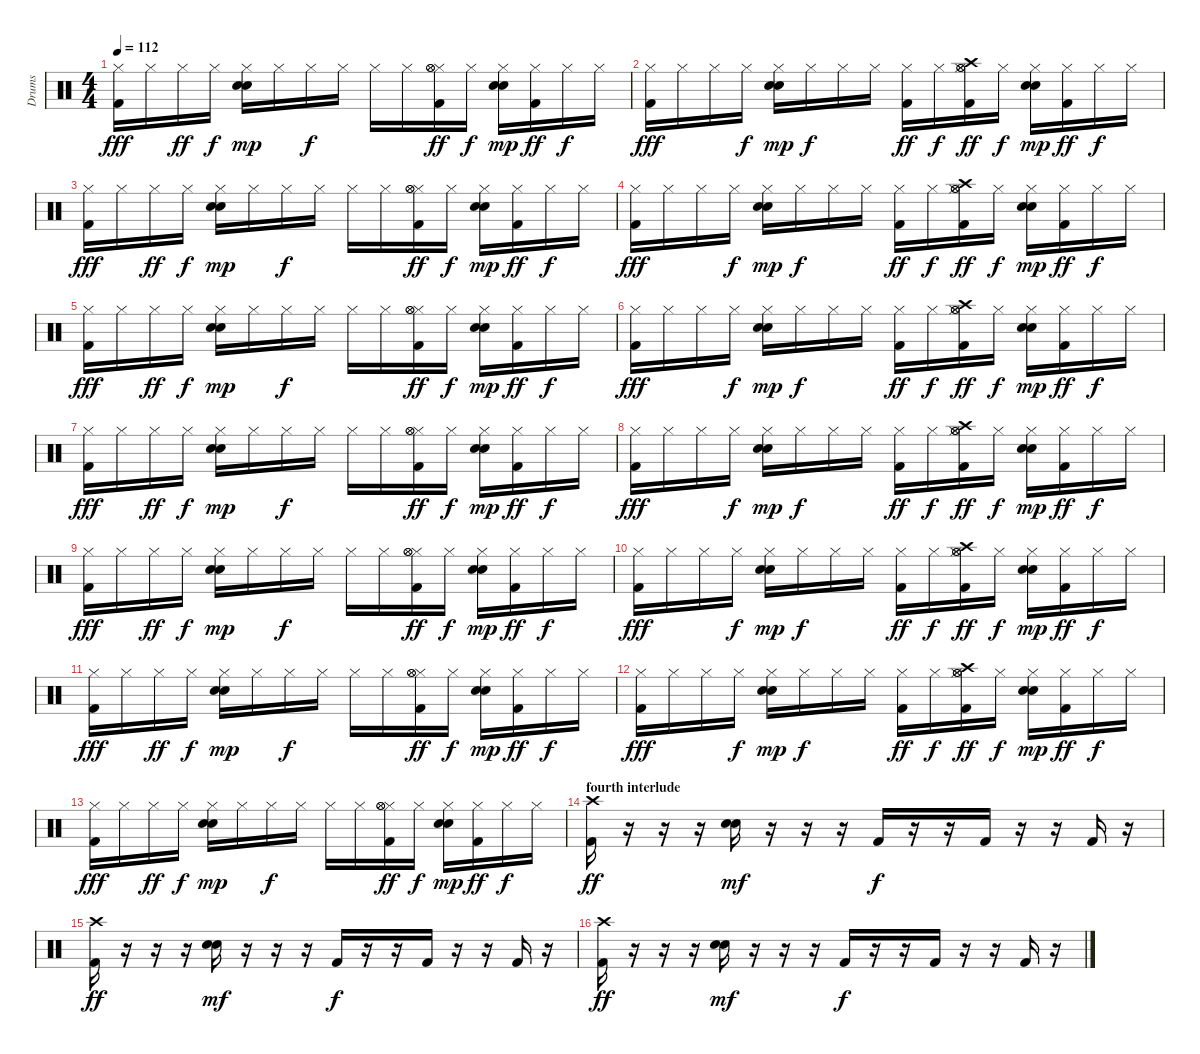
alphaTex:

\track ("Drums" "Drums") {instrument percussion}
\staff {score}
\articulation defaults
\ts (4 4)
\tempo 112
\clef neutral
\ks c
("Kick (hit) 2" "Hi-Hat (closed)").16{dy fff} "Hi-Hat (closed)".16 "Hi-Hat (closed)".16{dy ff} "Hi-Hat (closed)".16{dy f} ("Snare (hit) 2" "Hi-Hat (closed)" "Hand Clap (hit)").16{dy mp} "Hi-Hat (closed)".16 "Hi-Hat (closed)".16{dy f} "Hi-Hat (closed)".16 "Hi-Hat (closed)".16 "Hi-Hat (closed)".16 ("Kick (hit) 2" "Hi-Hat (closed)" "Hi-Hat (open)" "Hi-Hat (open)").16{dy ff} "Hi-Hat (closed)".16{dy f} ("Snare (hit) 2" "Hi-Hat (closed)" "Hand Clap (hit)").16{dy mp} ("Kick (hit) 2" "Hi-Hat (closed)").16{dy ff} "Hi-Hat (closed)".16{dy f} "Hi-Hat (closed)".16 |
("Kick (hit) 2" "Hi-Hat (closed)").16{dy fff} "Hi-Hat (closed)".16 "Hi-Hat (closed)".16 "Hi-Hat (closed)".16{dy f} ("Snare (hit) 2" "Hi-Hat (closed)" "Hand Clap (hit)").16{dy mp} "Hi-Hat (closed)".16{dy f} "Hi-Hat (closed)".16 "Hi-Hat (closed)".16 ("Kick (hit) 2" "Hi-Hat (closed)").16{dy ff} "Hi-Hat (closed)".16{dy f} ("Kick (hit) 2" "Crash high (hit)" "Hi-Hat (closed)" "Hi-Hat (open)" "Hi-Hat (open)").16{dy ff} "Hi-Hat (closed)".16{dy f} ("Snare (hit) 2" "Hi-Hat (closed)" "Hand Clap (hit)").16{dy mp} ("Kick (hit) 2" "Hi-Hat (closed)").16{dy ff} "Hi-Hat (closed)".16{dy f} "Hi-Hat (closed)".16 |
("Kick (hit) 2" "Hi-Hat (closed)").16{dy fff} "Hi-Hat (closed)".16 "Hi-Hat (closed)".16{dy ff} "Hi-Hat (closed)".16{dy f} ("Snare (hit) 2" "Hi-Hat (closed)" "Hand Clap (hit)").16{dy mp} "Hi-Hat (closed)".16 "Hi-Hat (closed)".16{dy f} "Hi-Hat (closed)".16 "Hi-Hat (closed)".16 "Hi-Hat (closed)".16 ("Kick (hit) 2" "Hi-Hat (closed)" "Hi-Hat (open)" "Hi-Hat (open)").16{dy ff} "Hi-Hat (closed)".16{dy f} ("Snare (hit) 2" "Hi-Hat (closed)" "Hand Clap (hit)").16{dy mp} ("Kick (hit) 2" "Hi-Hat (closed)").16{dy ff} "Hi-Hat (closed)".16{dy f} "Hi-Hat (closed)".16 |
("Kick (hit) 2" "Hi-Hat (closed)").16{dy fff} "Hi-Hat (closed)".16 "Hi-Hat (closed)".16 "Hi-Hat (closed)".16{dy f} ("Snare (hit) 2" "Hi-Hat (closed)" "Hand Clap (hit)").16{dy mp} "Hi-Hat (closed)".16{dy f} "Hi-Hat (closed)".16 "Hi-Hat (closed)".16 ("Kick (hit) 2" "Hi-Hat (closed)").16{dy ff} "Hi-Hat (closed)".16{dy f} ("Kick (hit) 2" "Crash high (hit)" "Hi-Hat (closed)" "Hi-Hat (open)" "Hi-Hat (open)").16{dy ff} "Hi-Hat (closed)".16{dy f} ("Snare (hit) 2" "Hi-Hat (closed)" "Hand Clap (hit)").16{dy mp} ("Kick (hit) 2" "Hi-Hat (closed)").16{dy ff} "Hi-Hat (closed)".16{dy f} "Hi-Hat (closed)".16 |
("Kick (hit) 2" "Hi-Hat (closed)").16{dy fff} "Hi-Hat (closed)".16 "Hi-Hat (closed)".16{dy ff} "Hi-Hat (closed)".16{dy f} ("Snare (hit) 2" "Hi-Hat (closed)" "Hand Clap (hit)").16{dy mp} "Hi-Hat (closed)".16 "Hi-Hat (closed)".16{dy f} "Hi-Hat (closed)".16 "Hi-Hat (closed)".16 "Hi-Hat (closed)".16 ("Kick (hit) 2" "Hi-Hat (closed)" "Hi-Hat (open)" "Hi-Hat (open)").16{dy ff} "Hi-Hat (closed)".16{dy f} ("Snare (hit) 2" "Hi-Hat (closed)" "Hand Clap (hit)").16{dy mp} ("Kick (hit) 2" "Hi-Hat (closed)").16{dy ff} "Hi-Hat (closed)".16{dy f} "Hi-Hat (closed)".16 |
("Kick (hit) 2" "Hi-Hat (closed)").16{dy fff} "Hi-Hat (closed)".16 "Hi-Hat (closed)".16 "Hi-Hat (closed)".16{dy f} ("Snare (hit) 2" "Hi-Hat (closed)" "Hand Clap (hit)").16{dy mp} "Hi-Hat (closed)".16{dy f} "Hi-Hat (closed)".16 "Hi-Hat (closed)".16 ("Kick (hit) 2" "Hi-Hat (closed)").16{dy ff} "Hi-Hat (closed)".16{dy f} ("Kick (hit) 2" "Crash high (hit)" "Hi-Hat (closed)" "Hi-Hat (open)" "Hi-Hat (open)").16{dy ff} "Hi-Hat (closed)".16{dy f} ("Snare (hit) 2" "Hi-Hat (closed)" "Hand Clap (hit)").16{dy mp} ("Kick (hit) 2" "Hi-Hat (closed)").16{dy ff} "Hi-Hat (closed)".16{dy f} "Hi-Hat (closed)".16 |
("Kick (hit) 2" "Hi-Hat (closed)").16{dy fff} "Hi-Hat (closed)".16 "Hi-Hat (closed)".16{dy ff} "Hi-Hat (closed)".16{dy f} ("Snare (hit) 2" "Hi-Hat (closed)" "Hand Clap (hit)").16{dy mp} "Hi-Hat (closed)".16 "Hi-Hat (closed)".16{dy f} "Hi-Hat (closed)".16 "Hi-Hat (closed)".16 "Hi-Hat (closed)".16 ("Kick (hit) 2" "Hi-Hat (closed)" "Hi-Hat (open)" "Hi-Hat (open)").16{dy ff} "Hi-Hat (closed)".16{dy f} ("Snare (hit) 2" "Hi-Hat (closed)" "Hand Clap (hit)").16{dy mp} ("Kick (hit) 2" "Hi-Hat (closed)").16{dy ff} "Hi-Hat (closed)".16{dy f} "Hi-Hat (closed)".16 |
("Kick (hit) 2" "Hi-Hat (closed)").16{dy fff} "Hi-Hat (closed)".16 "Hi-Hat (closed)".16 "Hi-Hat (closed)".16{dy f} ("Snare (hit) 2" "Hi-Hat (closed)" "Hand Clap (hit)").16{dy mp} "Hi-Hat (closed)".16{dy f} "Hi-Hat (closed)".16 "Hi-Hat (closed)".16 ("Kick (hit) 2" "Hi-Hat (closed)").16{dy ff} "Hi-Hat (closed)".16{dy f} ("Kick (hit) 2" "Crash high (hit)" "Hi-Hat (closed)" "Hi-Hat (open)" "Hi-Hat (open)").16{dy ff} "Hi-Hat (closed)".16{dy f} ("Snare (hit) 2" "Hi-Hat (closed)" "Hand Clap (hit)").16{dy mp} ("Kick (hit) 2" "Hi-Hat (closed)").16{dy ff} "Hi-Hat (closed)".16{dy f} "Hi-Hat (closed)".16 |
("Kick (hit) 2" "Hi-Hat (closed)").16{dy fff} "Hi-Hat (closed)".16 "Hi-Hat (closed)".16{dy ff} "Hi-Hat (closed)".16{dy f} ("Snare (hit) 2" "Hi-Hat (closed)" "Hand Clap (hit)").16{dy mp} "Hi-Hat (closed)".16 "Hi-Hat (closed)".16{dy f} "Hi-Hat (closed)".16 "Hi-Hat (closed)".16 "Hi-Hat (closed)".16 ("Kick (hit) 2" "Hi-Hat (closed)" "Hi-Hat (open)" "Hi-Hat (open)").16{dy ff} "Hi-Hat (closed)".16{dy f} ("Snare (hit) 2" "Hi-Hat (closed)" "Hand Clap (hit)").16{dy mp} ("Kick (hit) 2" "Hi-Hat (closed)").16{dy ff} "Hi-Hat (closed)".16{dy f} "Hi-Hat (closed)".16 |
("Kick (hit) 2" "Hi-Hat (closed)").16{dy fff} "Hi-Hat (closed)".16 "Hi-Hat (closed)".16 "Hi-Hat (closed)".16{dy f} ("Snare (hit) 2" "Hi-Hat (closed)" "Hand Clap (hit)").16{dy mp} "Hi-Hat (closed)".16{dy f} "Hi-Hat (closed)".16 "Hi-Hat (closed)".16 ("Kick (hit) 2" "Hi-Hat (closed)").16{dy ff} "Hi-Hat (closed)".16{dy f} ("Kick (hit) 2" "Crash high (hit)" "Hi-Hat (closed)" "Hi-Hat (open)" "Hi-Hat (open)").16{dy ff} "Hi-Hat (closed)".16{dy f} ("Snare (hit) 2" "Hi-Hat (closed)" "Hand Clap (hit)").16{dy mp} ("Kick (hit) 2" "Hi-Hat (closed)").16{dy ff} "Hi-Hat (closed)".16{dy f} "Hi-Hat (closed)".16 |
("Kick (hit) 2" "Hi-Hat (closed)").16{dy fff} "Hi-Hat (closed)".16 "Hi-Hat (closed)".16{dy ff} "Hi-Hat (closed)".16{dy f} ("Snare (hit) 2" "Hi-Hat (closed)" "Hand Clap (hit)").16{dy mp} "Hi-Hat (closed)".16 "Hi-Hat (closed)".16{dy f} "Hi-Hat (closed)".16 "Hi-Hat (closed)".16 "Hi-Hat (closed)".16 ("Kick (hit) 2" "Hi-Hat (closed)" "Hi-Hat (open)" "Hi-Hat (open)").16{dy ff} "Hi-Hat (closed)".16{dy f} ("Snare (hit) 2" "Hi-Hat (closed)" "Hand Clap (hit)").16{dy mp} ("Kick (hit) 2" "Hi-Hat (closed)").16{dy ff} "Hi-Hat (closed)".16{dy f} "Hi-Hat (closed)".16 |
("Kick (hit) 2" "Hi-Hat (closed)").16{dy fff} "Hi-Hat (closed)".16 "Hi-Hat (closed)".16 "Hi-Hat (closed)".16{dy f} ("Snare (hit) 2" "Hi-Hat (closed)" "Hand Clap (hit)").16{dy mp} "Hi-Hat (closed)".16{dy f} "Hi-Hat (closed)".16 "Hi-Hat (closed)".16 ("Kick (hit) 2" "Hi-Hat (closed)").16{dy ff} "Hi-Hat (closed)".16{dy f} ("Kick (hit) 2" "Crash high (hit)" "Hi-Hat (closed)" "Hi-Hat (open)" "Hi-Hat (open)").16{dy ff} "Hi-Hat (closed)".16{dy f} ("Snare (hit) 2" "Hi-Hat (closed)" "Hand Clap (hit)").16{dy mp} ("Kick (hit) 2" "Hi-Hat (closed)").16{dy ff} "Hi-Hat (closed)".16{dy f} "Hi-Hat (closed)".16 |
("Kick (hit) 2" "Hi-Hat (closed)").16{dy fff} "Hi-Hat (closed)".16 "Hi-Hat (closed)".16{dy ff} "Hi-Hat (closed)".16{dy f} ("Snare (hit) 2" "Hi-Hat (closed)" "Hand Clap (hit)").16{dy mp} "Hi-Hat (closed)".16 "Hi-Hat (closed)".16{dy f} "Hi-Hat (closed)".16 "Hi-Hat (closed)".16 "Hi-Hat (closed)".16 ("Kick (hit) 2" "Hi-Hat (closed)" "Hi-Hat (open)" "Hi-Hat (open)").16{dy ff} "Hi-Hat (closed)".16{dy f} ("Snare (hit) 2" "Hi-Hat (closed)" "Hand Clap (hit)").16{dy mp} ("Kick (hit) 2" "Hi-Hat (closed)").16{dy ff} "Hi-Hat (closed)".16{dy f} "Hi-Hat (closed)".16 |
\section ("" "fourth interlude")
("Kick (hit) 2" "Crash high (hit)").16{dy ff} r.16 r.16 r.16 ("Snare (hit) 2" "Hand Clap (hit)").16{dy mf} r.16 r.16 r.16 "Kick (hit) 2".16{dy f} r.16 r.16 "Kick (hit) 2".16 r.16 r.16 "Kick (hit) 2".16 r.16 |
("Kick (hit) 2" "Crash high (hit)").16{dy ff} r.16 r.16 r.16 ("Snare (hit) 2" "Hand Clap (hit)").16{dy mf} r.16 r.16 r.16 "Kick (hit) 2".16{dy f} r.16 r.16 "Kick (hit) 2".16 r.16 r.16 "Kick (hit) 2".16 r.16 |
("Kick (hit) 2" "Crash high (hit)").16{dy ff} r.16 r.16 r.16 ("Snare (hit) 2" "Hand Clap (hit)").16{dy mf} r.16 r.16 r.16 "Kick (hit) 2".16{dy f} r.16 r.16 "Kick (hit) 2".16 r.16 r.16 "Kick (hit) 2".16 r.16
